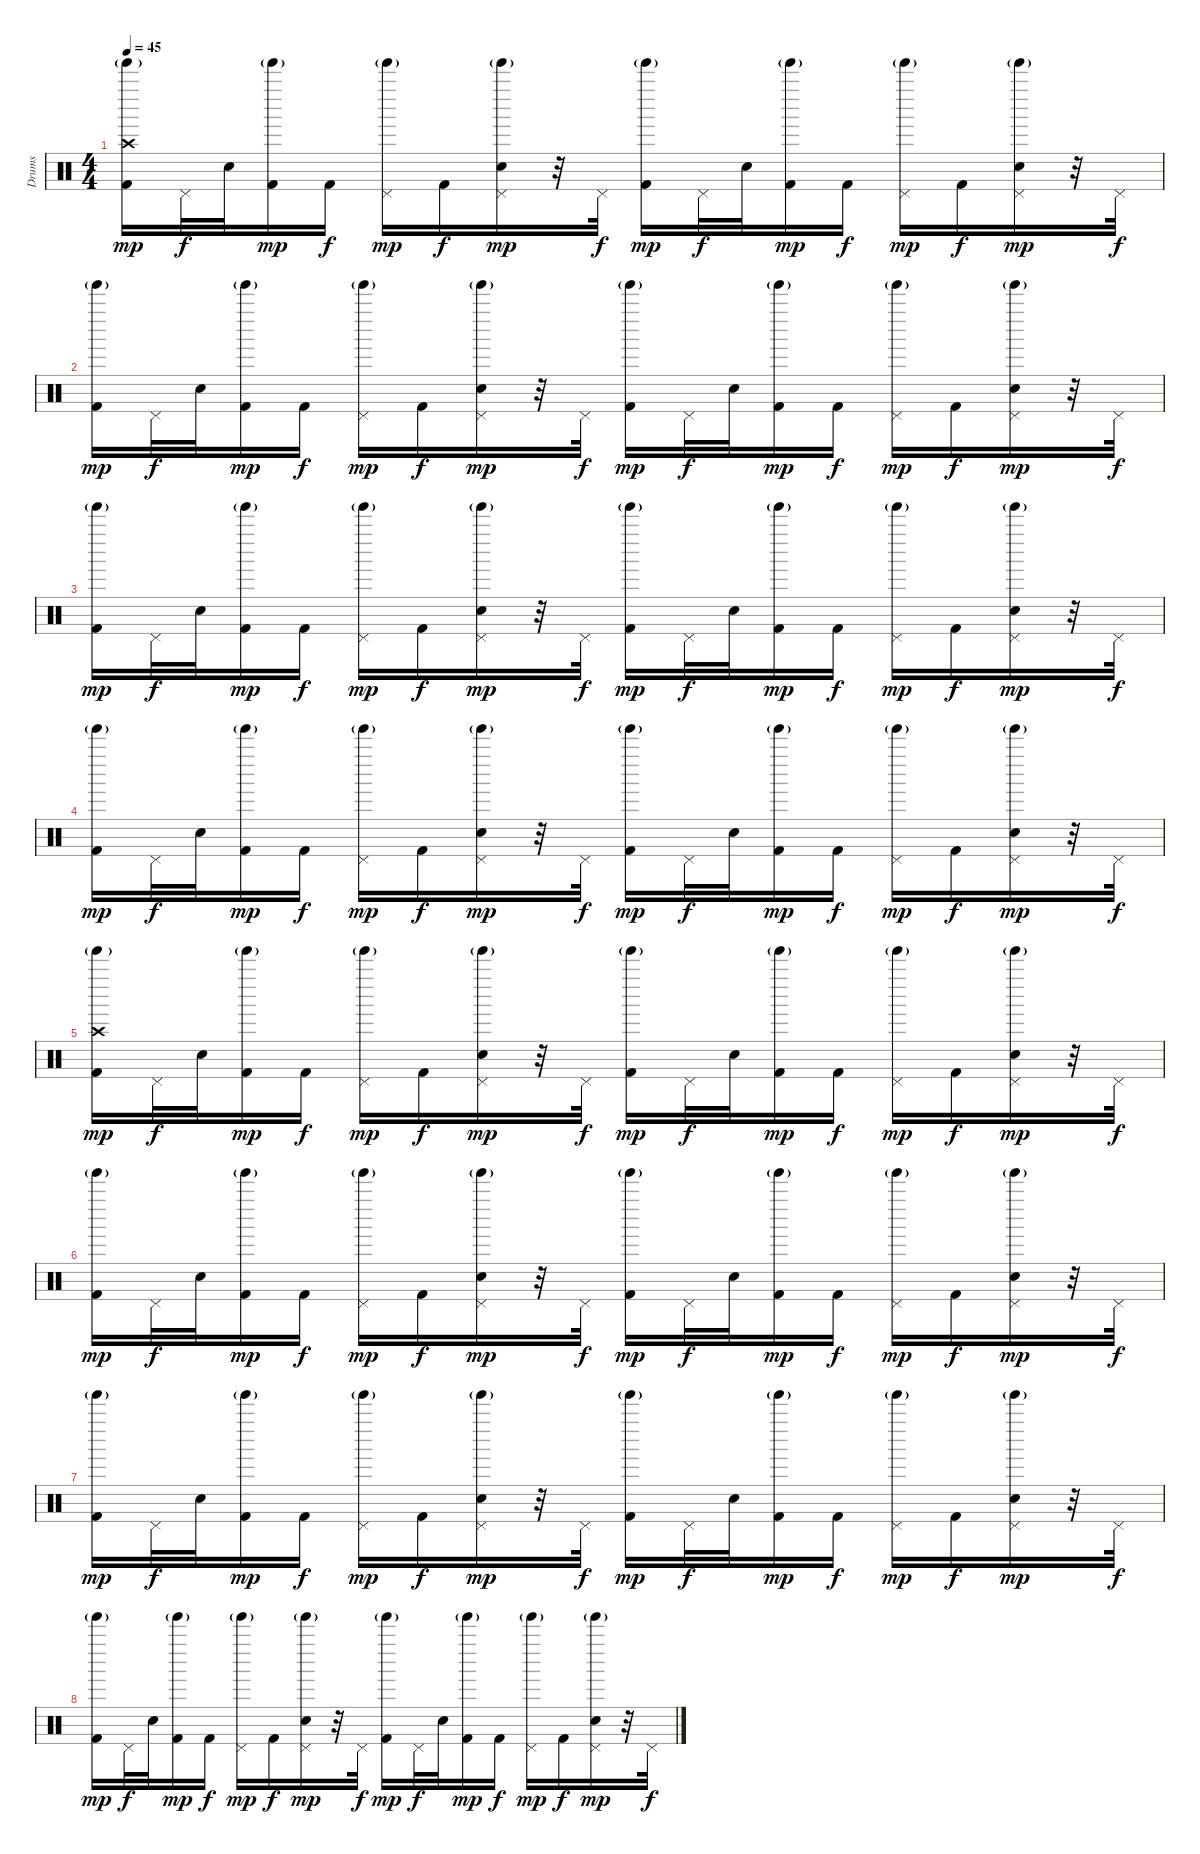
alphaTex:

\track ("Drums" "Drums") {instrument percussion}
\staff {score}
\articulation defaults
\ts (4 4)
\tempo 45
\clef neutral
\ks c
("Crash high (hit)" "Tinkle Bell (hit)"{g} "Kick (hit) 2").16{dy mp} "Pedal Hi-Hat (hit)".32{dy f} "Hand Clap (hit)".32 ("Tinkle Bell (hit)"{g} "Kick (hit) 2").16{dy mp} "Kick (hit) 2".16{dy f} ("Pedal Hi-Hat (hit)" "Tinkle Bell (hit)"{g}).16{dy mp} "Kick (hit) 2".16{dy f} ("Pedal Hi-Hat (hit)" "Hand Clap (hit)" "Tinkle Bell (hit)"{g}).16{dy mp} r.32 "Pedal Hi-Hat (hit)".32{dy f} ("Tinkle Bell (hit)"{g} "Kick (hit) 2").16{dy mp} "Pedal Hi-Hat (hit)".32{dy f} "Hand Clap (hit)".32 ("Tinkle Bell (hit)"{g} "Kick (hit) 2").16{dy mp} "Kick (hit) 2".16{dy f} ("Pedal Hi-Hat (hit)" "Tinkle Bell (hit)"{g}).16{dy mp} "Kick (hit) 2".16{dy f} ("Pedal Hi-Hat (hit)" "Hand Clap (hit)" "Tinkle Bell (hit)"{g}).16{dy mp} r.32 "Pedal Hi-Hat (hit)".32{dy f} |
("Tinkle Bell (hit)"{g} "Kick (hit) 2").16{dy mp} "Pedal Hi-Hat (hit)".32{dy f} "Hand Clap (hit)".32 ("Tinkle Bell (hit)"{g} "Kick (hit) 2").16{dy mp} "Kick (hit) 2".16{dy f} ("Pedal Hi-Hat (hit)" "Tinkle Bell (hit)"{g}).16{dy mp} "Kick (hit) 2".16{dy f} ("Pedal Hi-Hat (hit)" "Hand Clap (hit)" "Tinkle Bell (hit)"{g}).16{dy mp} r.32 "Pedal Hi-Hat (hit)".32{dy f} ("Tinkle Bell (hit)"{g} "Kick (hit) 2").16{dy mp} "Pedal Hi-Hat (hit)".32{dy f} "Hand Clap (hit)".32 ("Tinkle Bell (hit)"{g} "Kick (hit) 2").16{dy mp} "Kick (hit) 2".16{dy f} ("Pedal Hi-Hat (hit)" "Tinkle Bell (hit)"{g}).16{dy mp} "Kick (hit) 2".16{dy f} ("Pedal Hi-Hat (hit)" "Hand Clap (hit)" "Tinkle Bell (hit)"{g}).16{dy mp} r.32 "Pedal Hi-Hat (hit)".32{dy f} |
("Tinkle Bell (hit)"{g} "Kick (hit) 2").16{dy mp} "Pedal Hi-Hat (hit)".32{dy f} "Hand Clap (hit)".32 ("Tinkle Bell (hit)"{g} "Kick (hit) 2").16{dy mp} "Kick (hit) 2".16{dy f} ("Pedal Hi-Hat (hit)" "Tinkle Bell (hit)"{g}).16{dy mp} "Kick (hit) 2".16{dy f} ("Pedal Hi-Hat (hit)" "Hand Clap (hit)" "Tinkle Bell (hit)"{g}).16{dy mp} r.32 "Pedal Hi-Hat (hit)".32{dy f} ("Tinkle Bell (hit)"{g} "Kick (hit) 2").16{dy mp} "Pedal Hi-Hat (hit)".32{dy f} "Hand Clap (hit)".32 ("Tinkle Bell (hit)"{g} "Kick (hit) 2").16{dy mp} "Kick (hit) 2".16{dy f} ("Pedal Hi-Hat (hit)" "Tinkle Bell (hit)"{g}).16{dy mp} "Kick (hit) 2".16{dy f} ("Pedal Hi-Hat (hit)" "Hand Clap (hit)" "Tinkle Bell (hit)"{g}).16{dy mp} r.32 "Pedal Hi-Hat (hit)".32{dy f} |
("Tinkle Bell (hit)"{g} "Kick (hit) 2").16{dy mp} "Pedal Hi-Hat (hit)".32{dy f} "Hand Clap (hit)".32 ("Tinkle Bell (hit)"{g} "Kick (hit) 2").16{dy mp} "Kick (hit) 2".16{dy f} ("Pedal Hi-Hat (hit)" "Tinkle Bell (hit)"{g}).16{dy mp} "Kick (hit) 2".16{dy f} ("Pedal Hi-Hat (hit)" "Hand Clap (hit)" "Tinkle Bell (hit)"{g}).16{dy mp} r.32 "Pedal Hi-Hat (hit)".32{dy f} ("Tinkle Bell (hit)"{g} "Kick (hit) 2").16{dy mp} "Pedal Hi-Hat (hit)".32{dy f} "Hand Clap (hit)".32 ("Tinkle Bell (hit)"{g} "Kick (hit) 2").16{dy mp} "Kick (hit) 2".16{dy f} ("Pedal Hi-Hat (hit)" "Tinkle Bell (hit)"{g}).16{dy mp} "Kick (hit) 2".16{dy f} ("Pedal Hi-Hat (hit)" "Hand Clap (hit)" "Tinkle Bell (hit)"{g}).16{dy mp} r.32 "Pedal Hi-Hat (hit)".32{dy f} |
("Crash high (hit)" "Tinkle Bell (hit)"{g} "Kick (hit) 2").16{dy mp} "Pedal Hi-Hat (hit)".32{dy f} "Hand Clap (hit)".32 ("Tinkle Bell (hit)"{g} "Kick (hit) 2").16{dy mp} "Kick (hit) 2".16{dy f} ("Pedal Hi-Hat (hit)" "Tinkle Bell (hit)"{g}).16{dy mp} "Kick (hit) 2".16{dy f} ("Pedal Hi-Hat (hit)" "Hand Clap (hit)" "Tinkle Bell (hit)"{g}).16{dy mp} r.32 "Pedal Hi-Hat (hit)".32{dy f} ("Tinkle Bell (hit)"{g} "Kick (hit) 2").16{dy mp} "Pedal Hi-Hat (hit)".32{dy f} "Hand Clap (hit)".32 ("Tinkle Bell (hit)"{g} "Kick (hit) 2").16{dy mp} "Kick (hit) 2".16{dy f} ("Pedal Hi-Hat (hit)" "Tinkle Bell (hit)"{g}).16{dy mp} "Kick (hit) 2".16{dy f} ("Pedal Hi-Hat (hit)" "Hand Clap (hit)" "Tinkle Bell (hit)"{g}).16{dy mp} r.32 "Pedal Hi-Hat (hit)".32{dy f} |
("Tinkle Bell (hit)"{g} "Kick (hit) 2").16{dy mp} "Pedal Hi-Hat (hit)".32{dy f} "Hand Clap (hit)".32 ("Tinkle Bell (hit)"{g} "Kick (hit) 2").16{dy mp} "Kick (hit) 2".16{dy f} ("Pedal Hi-Hat (hit)" "Tinkle Bell (hit)"{g}).16{dy mp} "Kick (hit) 2".16{dy f} ("Pedal Hi-Hat (hit)" "Hand Clap (hit)" "Tinkle Bell (hit)"{g}).16{dy mp} r.32 "Pedal Hi-Hat (hit)".32{dy f} ("Tinkle Bell (hit)"{g} "Kick (hit) 2").16{dy mp} "Pedal Hi-Hat (hit)".32{dy f} "Hand Clap (hit)".32 ("Tinkle Bell (hit)"{g} "Kick (hit) 2").16{dy mp} "Kick (hit) 2".16{dy f} ("Pedal Hi-Hat (hit)" "Tinkle Bell (hit)"{g}).16{dy mp} "Kick (hit) 2".16{dy f} ("Pedal Hi-Hat (hit)" "Hand Clap (hit)" "Tinkle Bell (hit)"{g}).16{dy mp} r.32 "Pedal Hi-Hat (hit)".32{dy f} |
("Tinkle Bell (hit)"{g} "Kick (hit) 2").16{dy mp} "Pedal Hi-Hat (hit)".32{dy f} "Hand Clap (hit)".32 ("Tinkle Bell (hit)"{g} "Kick (hit) 2").16{dy mp} "Kick (hit) 2".16{dy f} ("Pedal Hi-Hat (hit)" "Tinkle Bell (hit)"{g}).16{dy mp} "Kick (hit) 2".16{dy f} ("Pedal Hi-Hat (hit)" "Hand Clap (hit)" "Tinkle Bell (hit)"{g}).16{dy mp} r.32 "Pedal Hi-Hat (hit)".32{dy f} ("Tinkle Bell (hit)"{g} "Kick (hit) 2").16{dy mp} "Pedal Hi-Hat (hit)".32{dy f} "Hand Clap (hit)".32 ("Tinkle Bell (hit)"{g} "Kick (hit) 2").16{dy mp} "Kick (hit) 2".16{dy f} ("Pedal Hi-Hat (hit)" "Tinkle Bell (hit)"{g}).16{dy mp} "Kick (hit) 2".16{dy f} ("Pedal Hi-Hat (hit)" "Hand Clap (hit)" "Tinkle Bell (hit)"{g}).16{dy mp} r.32 "Pedal Hi-Hat (hit)".32{dy f} |
("Tinkle Bell (hit)"{g} "Kick (hit) 2").16{dy mp} "Pedal Hi-Hat (hit)".32{dy f} "Hand Clap (hit)".32 ("Tinkle Bell (hit)"{g} "Kick (hit) 2").16{dy mp} "Kick (hit) 2".16{dy f} ("Pedal Hi-Hat (hit)" "Tinkle Bell (hit)"{g}).16{dy mp} "Kick (hit) 2".16{dy f} ("Pedal Hi-Hat (hit)" "Hand Clap (hit)" "Tinkle Bell (hit)"{g}).16{dy mp} r.32 "Pedal Hi-Hat (hit)".32{dy f} ("Tinkle Bell (hit)"{g} "Kick (hit) 2").16{dy mp} "Pedal Hi-Hat (hit)".32{dy f} "Hand Clap (hit)".32 ("Tinkle Bell (hit)"{g} "Kick (hit) 2").16{dy mp} "Kick (hit) 2".16{dy f} ("Pedal Hi-Hat (hit)" "Tinkle Bell (hit)"{g}).16{dy mp} "Kick (hit) 2".16{dy f} ("Pedal Hi-Hat (hit)" "Hand Clap (hit)" "Tinkle Bell (hit)"{g}).16{dy mp} r.32 "Pedal Hi-Hat (hit)".32{dy f}
